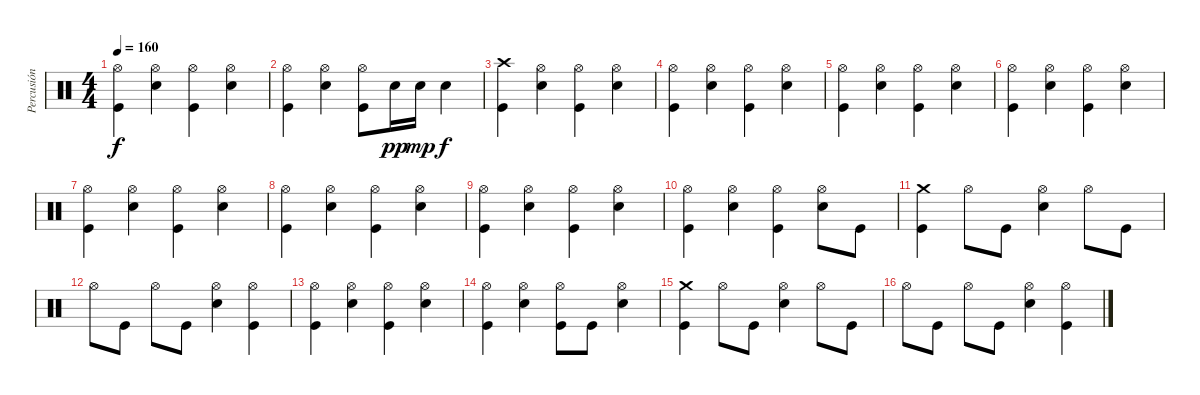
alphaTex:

\track ("Percusión" "Percusión") {instrument percussion}
\staff {score}
\articulation defaults
\ts (4 4)
\tempo 160
\clef neutral
\ks c
("Kick (hit)" "Hi-Hat (open)").4{dy f} ("Snare (hit) 2" "Hi-Hat (open)").4 ("Kick (hit)" "Hi-Hat (open)").4 ("Snare (hit) 2" "Hi-Hat (open)").4 |
("Kick (hit)" "Hi-Hat (open)").4 ("Snare (hit) 2" "Hi-Hat (open)").4 ("Kick (hit)" "Hi-Hat (open)").8 "Snare (hit) 2".16{dy pp} "Snare (hit) 2".16{dy mp} "Snare (hit) 2".4{dy f} |
("Kick (hit)" "Crash high (hit)").4 ("Snare (hit) 2" "Hi-Hat (open)").4 ("Kick (hit)" "Hi-Hat (open)").4 ("Snare (hit) 2" "Hi-Hat (open)").4 |
("Kick (hit)" "Hi-Hat (open)").4 ("Snare (hit) 2" "Hi-Hat (open)").4 ("Kick (hit)" "Hi-Hat (open)").4 ("Snare (hit) 2" "Hi-Hat (open)").4 |
("Kick (hit)" "Hi-Hat (open)").4 ("Snare (hit) 2" "Hi-Hat (open)").4 ("Kick (hit)" "Hi-Hat (open)").4 ("Snare (hit) 2" "Hi-Hat (open)").4 |
("Kick (hit)" "Hi-Hat (open)").4 ("Snare (hit) 2" "Hi-Hat (open)").4 ("Kick (hit)" "Hi-Hat (open)").4 ("Snare (hit) 2" "Hi-Hat (open)").4 |
("Kick (hit)" "Hi-Hat (open)").4 ("Snare (hit) 2" "Hi-Hat (open)").4 ("Kick (hit)" "Hi-Hat (open)").4 ("Snare (hit) 2" "Hi-Hat (open)").4 |
("Kick (hit)" "Hi-Hat (open)").4 ("Snare (hit) 2" "Hi-Hat (open)").4 ("Kick (hit)" "Hi-Hat (open)").4 ("Snare (hit) 2" "Hi-Hat (open)").4 |
("Kick (hit)" "Hi-Hat (open)").4 ("Snare (hit) 2" "Hi-Hat (open)").4 ("Kick (hit)" "Hi-Hat (open)").4 ("Snare (hit) 2" "Hi-Hat (open)").4 |
("Kick (hit)" "Hi-Hat (open)").4 ("Snare (hit) 2" "Hi-Hat (open)").4 ("Kick (hit)" "Hi-Hat (open)").4 ("Snare (hit) 2" "Hi-Hat (open)").8 "Kick (hit)".8 |
("Kick (hit)" "Crash medium (hit)").4 "Hi-Hat (open)".8 "Kick (hit)".8 ("Snare (hit) 2" "Hi-Hat (open)").4 "Hi-Hat (open)".8 "Kick (hit)".8 |
"Hi-Hat (open)".8 "Kick (hit)".8 "Hi-Hat (open)".8 "Kick (hit)".8 ("Snare (hit) 2" "Hi-Hat (open)").4 ("Kick (hit)" "Hi-Hat (open)").4 |
("Kick (hit)" "Hi-Hat (open)").4 ("Snare (hit) 2" "Hi-Hat (open)").4 ("Kick (hit)" "Hi-Hat (open)").4 ("Snare (hit) 2" "Hi-Hat (open)").4 |
("Kick (hit)" "Hi-Hat (open)").4 ("Snare (hit) 2" "Hi-Hat (open)").4 ("Kick (hit)" "Hi-Hat (open)").8 "Kick (hit)".8 ("Snare (hit) 2" "Hi-Hat (open)").4 |
("Kick (hit)" "Crash medium (hit)").4 "Hi-Hat (open)".8 "Kick (hit)".8 ("Snare (hit) 2" "Hi-Hat (open)").4 "Hi-Hat (open)".8 "Kick (hit)".8 |
"Hi-Hat (open)".8 "Kick (hit)".8 "Hi-Hat (open)".8 "Kick (hit)".8 ("Snare (hit) 2" "Hi-Hat (open)").4 ("Kick (hit)" "Hi-Hat (open)").4
